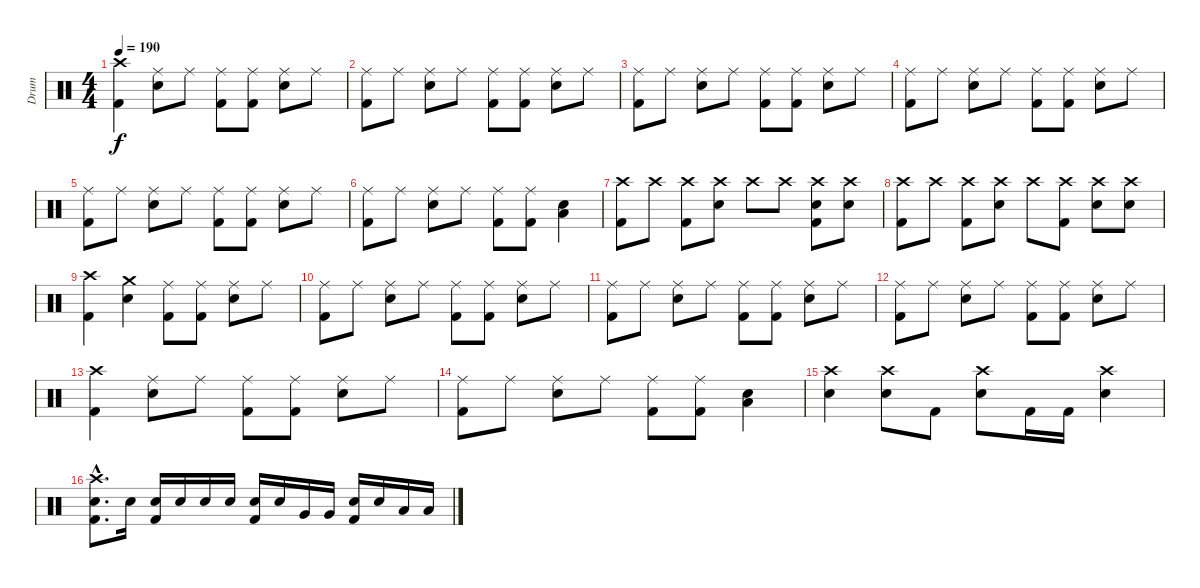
\track ("Drum" "Drum") {instrument percussion}
\staff {score}
\articulation defaults
\ts (4 4)
\tempo 190
\clef neutral
\ks c
("Crash high (hit)" "Kick (hit) 2").4{dy f} ("Ride (middle)" "Electric Snare (hit)").8 "Ride (middle)".8 ("Ride (middle)" "Kick (hit) 2").8 ("Ride (middle)" "Kick (hit) 2").8 ("Ride (middle)" "Electric Snare (hit)").8 "Ride (middle)".8 |
("Ride (middle)" "Kick (hit) 2").8 "Ride (middle)".8 ("Ride (middle)" "Electric Snare (hit)").8 "Ride (middle)".8 ("Ride (middle)" "Kick (hit) 2").8 ("Ride (middle)" "Kick (hit) 2").8 ("Ride (middle)" "Electric Snare (hit)").8 "Ride (middle)".8 |
("Ride (middle)" "Kick (hit) 2").8 "Ride (middle)".8 ("Ride (middle)" "Electric Snare (hit)").8 "Ride (middle)".8 ("Ride (middle)" "Kick (hit) 2").8 ("Ride (middle)" "Kick (hit) 2").8 ("Ride (middle)" "Electric Snare (hit)").8 "Ride (middle)".8 |
("Ride (middle)" "Kick (hit) 2").8 "Ride (middle)".8 ("Ride (middle)" "Electric Snare (hit)").8 "Ride (middle)".8 ("Ride (middle)" "Kick (hit) 2").8 ("Ride (middle)" "Kick (hit) 2").8 ("Ride (middle)" "Electric Snare (hit)").8 "Ride (middle)".8 |
("Ride (middle)" "Kick (hit) 2").8 "Ride (middle)".8 ("Ride (middle)" "Electric Snare (hit)").8 "Ride (middle)".8 ("Ride (middle)" "Kick (hit) 2").8 ("Ride (middle)" "Kick (hit) 2").8 ("Ride (middle)" "Electric Snare (hit)").8 "Ride (middle)".8 |
("Ride (middle)" "Kick (hit) 2").8 "Ride (middle)".8 ("Ride (middle)" "Electric Snare (hit)").8 "Ride (middle)".8 ("Ride (middle)" "Kick (hit) 2").8 ("Ride (middle)" "Kick (hit) 2").8 ("Electric Snare (hit)" "Low Floor Tom (hit)").4 |
("Crash high (hit)" "Kick (hit) 2").8 "Crash high (hit)".8 ("Crash high (hit)" "Kick (hit) 2").8 ("Crash high (hit)" "Electric Snare (hit)").8 "Crash high (hit)".8 "Crash high (hit)".8 ("Crash high (hit)" "Electric Snare (hit)" "Kick (hit) 2").8 ("Crash high (hit)" "Electric Snare (hit)").8 |
("Crash high (hit)" "Kick (hit) 2").8 "Crash high (hit)".8 ("Crash high (hit)" "Kick (hit) 2").8 ("Crash high (hit)" "Electric Snare (hit)").8 "Crash high (hit)".8 ("Crash high (hit)" "Kick (hit) 2").8 ("Crash high (hit)" "Electric Snare (hit)").8 ("Crash high (hit)" "Electric Snare (hit)").8 |
("Crash high (hit)" "Kick (hit) 2").4 ("Crash medium (hit)" "Electric Snare (hit)").4 ("Ride (middle)" "Kick (hit) 2").8 ("Ride (middle)" "Kick (hit) 2").8 ("Ride (middle)" "Electric Snare (hit)").8 "Ride (middle)".8 |
("Ride (middle)" "Kick (hit) 2").8 "Ride (middle)".8 ("Ride (middle)" "Electric Snare (hit)").8 "Ride (middle)".8 ("Ride (middle)" "Kick (hit) 2").8 ("Ride (middle)" "Kick (hit) 2").8 ("Ride (middle)" "Electric Snare (hit)").8 "Ride (middle)".8 |
("Ride (middle)" "Kick (hit) 2").8 "Ride (middle)".8 ("Ride (middle)" "Electric Snare (hit)").8 "Ride (middle)".8 ("Ride (middle)" "Kick (hit) 2").8 ("Ride (middle)" "Kick (hit) 2").8 ("Ride (middle)" "Electric Snare (hit)").8 "Ride (middle)".8 |
("Ride (middle)" "Kick (hit) 2").8 "Ride (middle)".8 ("Ride (middle)" "Electric Snare (hit)").8 "Ride (middle)".8 ("Ride (middle)" "Kick (hit) 2").8 ("Ride (middle)" "Kick (hit) 2").8 ("Ride (middle)" "Electric Snare (hit)").8 "Ride (middle)".8 |
("Crash high (hit)" "Kick (hit) 2").4 ("Ride (middle)" "Electric Snare (hit)").8 "Ride (middle)".8 ("Ride (middle)" "Kick (hit) 2").8 ("Ride (middle)" "Kick (hit) 2").8 ("Ride (middle)" "Electric Snare (hit)").8 "Ride (middle)".8 |
("Ride (middle)" "Kick (hit) 2").8 "Ride (middle)".8 ("Ride (middle)" "Electric Snare (hit)").8 "Ride (middle)".8 ("Ride (middle)" "Kick (hit) 2").8 ("Ride (middle)" "Kick (hit) 2").8 ("Electric Snare (hit)" "Low Floor Tom (hit)").4 |
("Crash high (hit)" "Electric Snare (hit)").4 ("Crash high (hit)" "Electric Snare (hit)").8 "Kick (hit) 2".8 ("Crash high (hit)" "Electric Snare (hit)").8 "Kick (hit) 2".16 "Kick (hit) 2".16 ("Crash high (hit)" "Electric Snare (hit)").4 |
("Crash high (hit)"{hac} "Electric Snare (hit)"{hac} "Kick (hit) 2"{hac}).8{d} "Electric Snare (hit)".16 ("Electric Snare (hit)" "Kick (hit) 2").16 "Electric Snare (hit)".16 "Electric Snare (hit)".16 "Electric Snare (hit)".16 ("Electric Snare (hit)" "Kick (hit) 2").16 "Electric Snare (hit)".16 "Very Low Tom (hit)".16 "Very Low Tom (hit)".16 ("Electric Snare (hit)" "Kick (hit) 2").16 "Electric Snare (hit)".16 "Low Floor Tom (hit)".16 "Low Floor Tom (hit)".16
